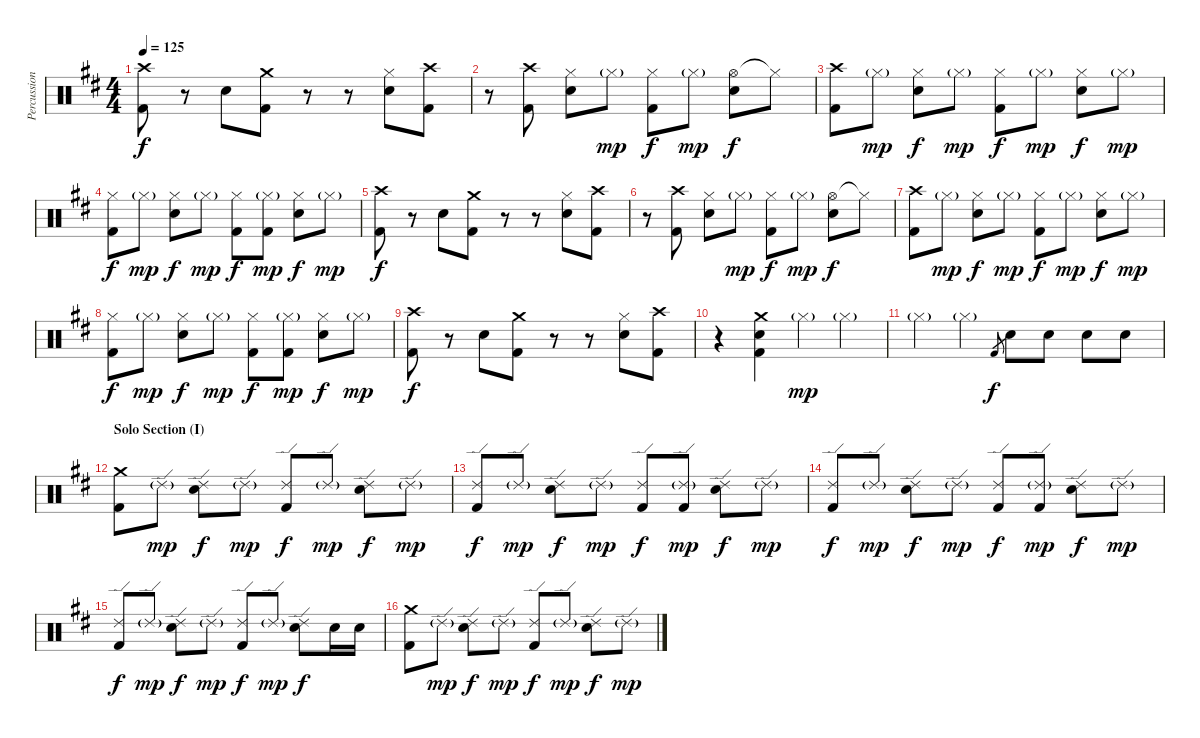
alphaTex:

\track ("Percussion" "Percussion") {instrument percussion}
\staff {score}
\articulation defaults
\ts (4 4)
\tempo 125
\clef neutral
\ks bminor
("Crash high (hit)" "Kick (hit) 2").8{dy f} r.8 "Snare (hit) 2".8 ("Crash medium (hit)" "Kick (hit) 2").8 r.8 r.8 ("Hi-Hat (closed)" "Snare (hit) 2").8 ("Crash high (hit)" "Kick (hit) 2").8 |
r.8 ("Crash high (hit)" "Kick (hit) 2").8 ("Hi-Hat (closed)" "Snare (hit) 2").8 "Hi-Hat (closed)"{g}.8{dy mp} ("Hi-Hat (closed)" "Kick (hit) 2").8{dy f} "Hi-Hat (closed)"{g}.8{dy mp} ("Hi-Hat (open)" "Snare (hit) 2").8{dy f} "Hi-Hat (closed)"{t}.8 |
("Crash high (hit)" "Kick (hit) 2").8 "Hi-Hat (closed)"{g}.8{dy mp} ("Hi-Hat (closed)" "Snare (hit) 2").8{dy f} "Hi-Hat (closed)"{g}.8{dy mp} ("Hi-Hat (closed)" "Kick (hit) 2").8{dy f} "Hi-Hat (closed)"{g}.8{dy mp} ("Hi-Hat (closed)" "Snare (hit) 2").8{dy f} "Hi-Hat (closed)"{g}.8{dy mp} |
("Hi-Hat (closed)" "Kick (hit) 2").8{dy f} "Hi-Hat (closed)"{g}.8{dy mp} ("Hi-Hat (closed)" "Snare (hit) 2").8{dy f} "Hi-Hat (closed)"{g}.8{dy mp} ("Hi-Hat (closed)" "Kick (hit) 2").8{dy f} ("Hi-Hat (closed)"{g} "Kick (hit) 2").8{dy mp} ("Hi-Hat (closed)" "Snare (hit) 2").8{dy f} "Hi-Hat (closed)"{g}.8{dy mp} |
("Crash high (hit)" "Kick (hit) 2").8{dy f} r.8 "Snare (hit) 2".8 ("Crash medium (hit)" "Kick (hit) 2").8 r.8 r.8 ("Hi-Hat (closed)" "Snare (hit) 2").8 ("Crash high (hit)" "Kick (hit) 2").8 |
r.8 ("Crash high (hit)" "Kick (hit) 2").8 ("Hi-Hat (closed)" "Snare (hit) 2").8 "Hi-Hat (closed)"{g}.8{dy mp} ("Hi-Hat (closed)" "Kick (hit) 2").8{dy f} "Hi-Hat (closed)"{g}.8{dy mp} ("Hi-Hat (open)" "Snare (hit) 2").8{dy f} "Hi-Hat (closed)"{t}.8 |
("Crash high (hit)" "Kick (hit) 2").8 "Hi-Hat (closed)"{g}.8{dy mp} ("Hi-Hat (closed)" "Snare (hit) 2").8{dy f} "Hi-Hat (closed)"{g}.8{dy mp} ("Hi-Hat (closed)" "Kick (hit) 2").8{dy f} "Hi-Hat (closed)"{g}.8{dy mp} ("Hi-Hat (closed)" "Snare (hit) 2").8{dy f} "Hi-Hat (closed)"{g}.8{dy mp} |
("Hi-Hat (closed)" "Kick (hit) 2").8{dy f} "Hi-Hat (closed)"{g}.8{dy mp} ("Hi-Hat (closed)" "Snare (hit) 2").8{dy f} "Hi-Hat (closed)"{g}.8{dy mp} ("Hi-Hat (closed)" "Kick (hit) 2").8{dy f} ("Hi-Hat (closed)"{g} "Kick (hit) 2").8{dy mp} ("Hi-Hat (closed)" "Snare (hit) 2").8{dy f} "Hi-Hat (closed)"{g}.8{dy mp} |
("Crash high (hit)" "Kick (hit) 2").8{dy f} r.8 "Snare (hit) 2".8 ("Crash medium (hit)" "Kick (hit) 2").8 r.8 r.8 ("Hi-Hat (closed)" "Snare (hit) 2").8 ("Crash high (hit)" "Kick (hit) 2").8 |
r.4 ("Crash medium (hit)" "Snare (hit) 2" "Kick (hit) 2").4 "Hi-Hat (closed)"{g}.4{dy mp} "Hi-Hat (closed)"{g}.4 |
"Hi-Hat (closed)"{g}.4 "Hi-Hat (closed)"{g}.4 "Kick (hit) 2".8{gr dy f} "Snare (hit) 2".8 "Snare (hit) 2".8 "Snare (hit) 2".8 "Snare (hit) 2".8 |
\section ("" "Solo Section (I)")
("Crash medium (hit)" "Kick (hit) 2").8 "Ride (edge) 2"{g}.8{dy mp} ("Ride (edge) 2" "Snare (hit) 2").8{dy f} "Ride (edge) 2"{g}.8{dy mp} ("Ride (edge) 2" "Kick (hit) 2").8{dy f} "Ride (edge) 2"{g}.8{dy mp} ("Ride (edge) 2" "Snare (hit) 2").8{dy f} "Ride (edge) 2"{g}.8{dy mp} |
("Ride (edge) 2" "Kick (hit) 2").8{dy f} "Ride (edge) 2"{g}.8{dy mp} ("Ride (edge) 2" "Snare (hit) 2").8{dy f} "Ride (edge) 2"{g}.8{dy mp} ("Ride (edge) 2" "Kick (hit) 2").8{dy f} ("Ride (edge) 2"{g} "Kick (hit) 2").8{dy mp} ("Ride (edge) 2" "Snare (hit) 2").8{dy f} "Ride (edge) 2"{g}.8{dy mp} |
("Ride (edge) 2" "Kick (hit) 2").8{dy f} "Ride (edge) 2"{g}.8{dy mp} ("Ride (edge) 2" "Snare (hit) 2").8{dy f} "Ride (edge) 2"{g}.8{dy mp} ("Ride (edge) 2" "Kick (hit) 2").8{dy f} ("Ride (edge) 2"{g} "Kick (hit) 2").8{dy mp} ("Ride (edge) 2" "Snare (hit) 2").8{dy f} "Ride (edge) 2"{g}.8{dy mp} |
("Ride (edge) 2" "Kick (hit) 2").8{dy f} "Ride (edge) 2"{g}.8{dy mp} ("Ride (edge) 2" "Snare (hit) 2").8{dy f} "Ride (edge) 2"{g}.8{dy mp} ("Ride (edge) 2" "Kick (hit) 2").8{dy f} "Ride (edge) 2"{g}.8{dy mp} ("Ride (edge) 2" "Snare (hit) 2").8{dy f} "Electric Snare (hit)".16 "Electric Snare (hit)".16 |
("Crash medium (hit)" "Kick (hit) 2").8 "Ride (edge) 2"{g}.8{dy mp} ("Ride (edge) 2" "Snare (hit) 2").8{dy f} "Ride (edge) 2"{g}.8{dy mp} ("Ride (edge) 2" "Kick (hit) 2").8{dy f} "Ride (edge) 2"{g}.8{dy mp} ("Ride (edge) 2" "Snare (hit) 2").8{dy f} "Ride (edge) 2"{g}.8{dy mp}
